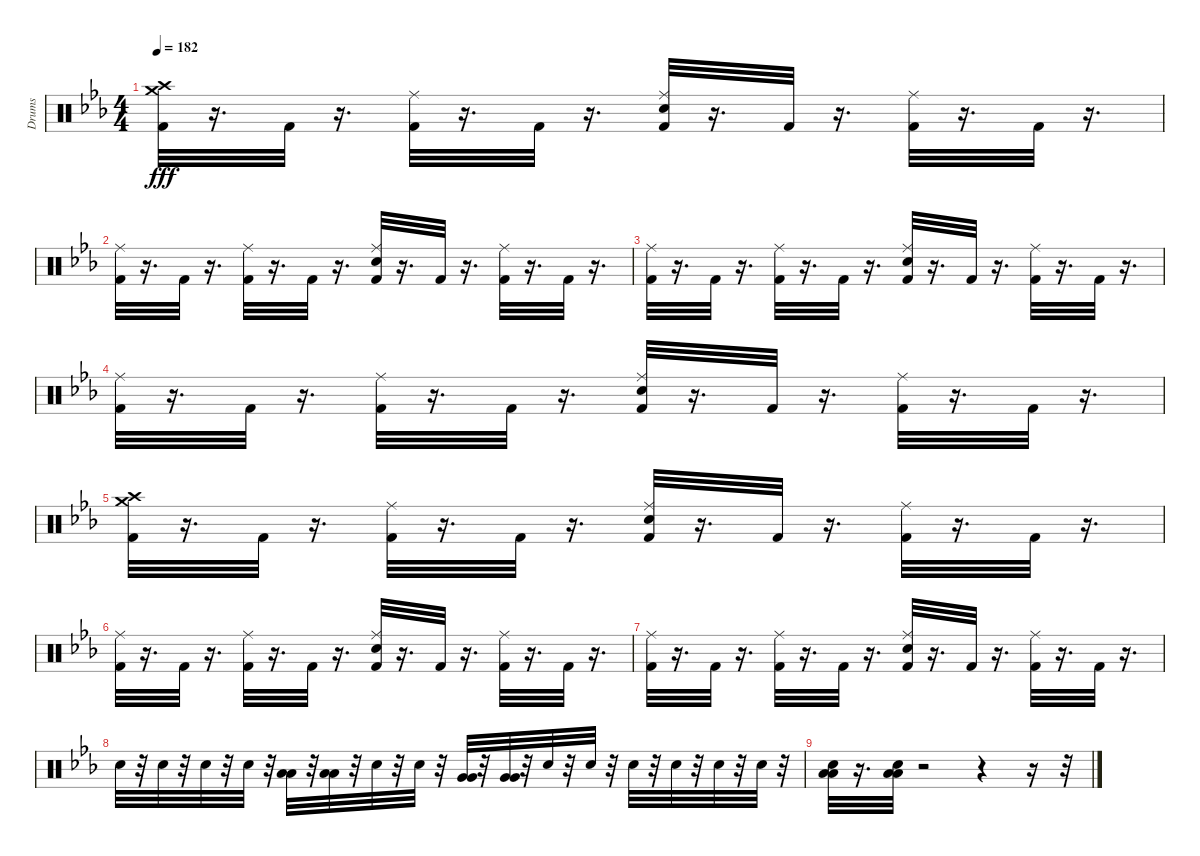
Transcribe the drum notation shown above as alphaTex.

\track ("Drums" "Drums") {instrument percussion}
\staff {score}
\articulation defaults
\ts (4 4)
\tempo 182
\clef neutral
\ks cminor
("Crash medium (hit)" "Crash high (hit)" "Kick (hit) 2").32{dy fff} r.16{d} "Kick (hit) 2".32 r.16{d} ("Kick (hit) 2" "Ride (middle)").32 r.16{d} "Kick (hit) 2".32 r.16{d} ("Snare (hit) 2" "Ride (middle)" "Kick (hit) 2").32 r.16{d} "Kick (hit) 2".32 r.16{d} ("Kick (hit) 2" "Ride (middle)").32 r.16{d} "Kick (hit) 2".32 r.16{d} |
("Kick (hit) 2" "Ride (middle)").32 r.16{d} "Kick (hit) 2".32 r.16{d} ("Kick (hit) 2" "Ride (middle)").32 r.16{d} "Kick (hit) 2".32 r.16{d} ("Snare (hit) 2" "Kick (hit) 2" "Ride (middle)").32 r.16{d} "Kick (hit) 2".32 r.16{d} ("Ride (middle)" "Kick (hit) 2").32 r.16{d} "Kick (hit) 2".32 r.16{d} |
("Kick (hit) 2" "Ride (middle)").32 r.16{d} "Kick (hit) 2".32 r.16{d} ("Ride (middle)" "Kick (hit) 2").32 r.16{d} "Kick (hit) 2".32 r.16{d} ("Snare (hit) 2" "Kick (hit) 2" "Ride (middle)").32 r.16{d} "Kick (hit) 2".32 r.16{d} ("Kick (hit) 2" "Ride (middle)").32 r.16{d} "Kick (hit) 2".32 r.16{d} |
("Ride (middle)" "Kick (hit) 2").32 r.16{d} "Kick (hit) 2".32 r.16{d} ("Ride (middle)" "Kick (hit) 2").32 r.16{d} "Kick (hit) 2".32 r.16{d} ("Ride (middle)" "Snare (hit) 2" "Kick (hit) 2").32 r.16{d} "Kick (hit) 2".32 r.16{d} ("Ride (middle)" "Kick (hit) 2").32 r.16{d} "Kick (hit) 2".32 r.16{d} |
("Crash medium (hit)" "Crash high (hit)" "Kick (hit) 2").32 r.16{d} "Kick (hit) 2".32 r.16{d} ("Kick (hit) 2" "Ride (middle)").32 r.16{d} "Kick (hit) 2".32 r.16{d} ("Snare (hit) 2" "Ride (middle)" "Kick (hit) 2").32 r.16{d} "Kick (hit) 2".32 r.16{d} ("Kick (hit) 2" "Ride (middle)").32 r.16{d} "Kick (hit) 2".32 r.16{d} |
("Kick (hit) 2" "Ride (middle)").32 r.16{d} "Kick (hit) 2".32 r.16{d} ("Kick (hit) 2" "Ride (middle)").32 r.16{d} "Kick (hit) 2".32 r.16{d} ("Snare (hit) 2" "Kick (hit) 2" "Ride (middle)").32 r.16{d} "Kick (hit) 2".32 r.16{d} ("Ride (middle)" "Kick (hit) 2").32 r.16{d} "Kick (hit) 2".32 r.16{d} |
("Kick (hit) 2" "Ride (middle)").32 r.16{d} "Kick (hit) 2".32 r.16{d} ("Ride (middle)" "Kick (hit) 2").32 r.16{d} "Kick (hit) 2".32 r.16{d} ("Snare (hit) 2" "Kick (hit) 2" "Ride (middle)").32 r.16{d} "Kick (hit) 2".32 r.16{d} ("Kick (hit) 2" "Ride (middle)").32 r.16{d} "Kick (hit) 2".32 r.16{d} |
"Snare (hit) 2".32 r.32 "Snare (hit) 2".32 r.32 "Snare (hit) 2".32 r.32 "Snare (hit) 2".32 r.32 ("Low Tom (hit)" "Low Tom (hit)").32 r.32 ("Low Tom (hit)" "Low Tom (hit)").32 r.32 "Snare (hit) 2".32 r.32 "Snare (hit) 2".32 r.32 ("Very Low Tom (hit)" "Very Low Tom (hit)").32 r.32 ("Very Low Tom (hit)" "Very Low Tom (hit)").32 r.32 "Snare (hit) 2".32 r.32 "Snare (hit) 2".32 r.32 "Snare (hit) 2".32 r.32 "Snare (hit) 2".32 r.32 "Snare (hit) 2".32 r.32 "Snare (hit) 2".32 r.32 |
("Low Floor Tom (hit)" "Low Floor Tom (hit)" "Snare (hit) 2").32 r.16{d} ("Low Floor Tom (hit)" "Low Floor Tom (hit)" "Snare (hit) 2").32 r.2 r.4 r.16 r.32
